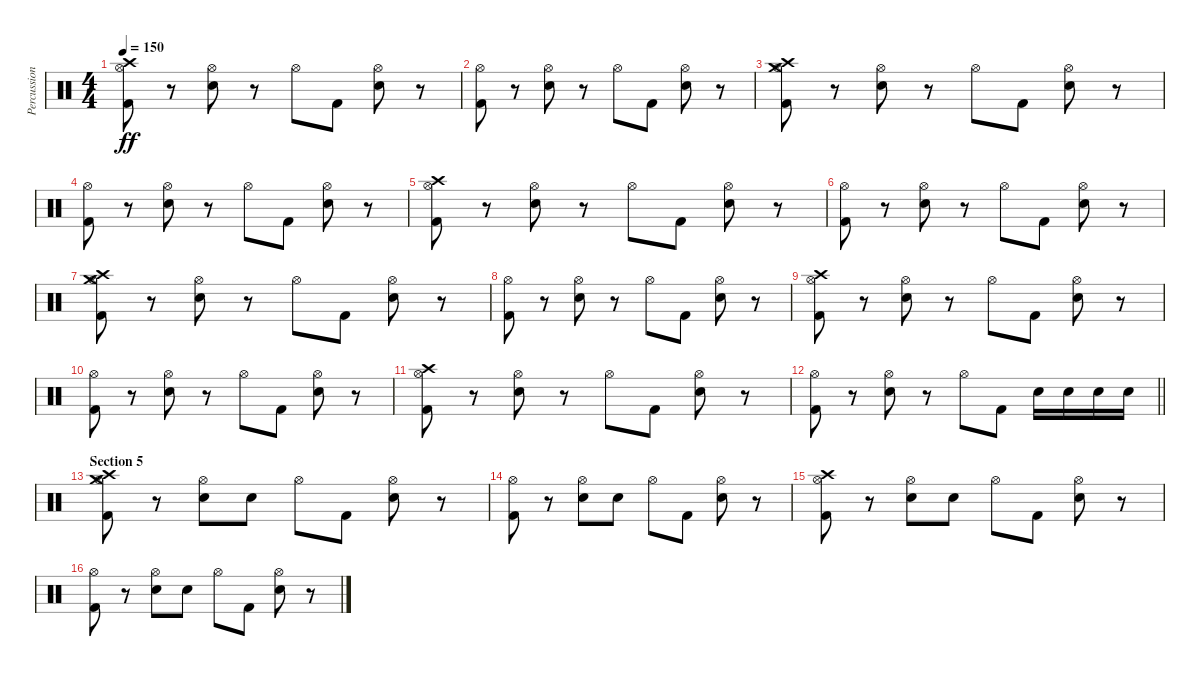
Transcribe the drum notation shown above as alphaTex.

\track ("Percussion" "Percussion") {instrument percussion}
\staff {score}
\articulation defaults
\ts (4 4)
\tempo 150
\clef neutral
\ks c
("Hi-Hat (open)" "Crash high (hit)" "Kick (hit) 2").8{dy ff} r.8 ("Hi-Hat (open)" "Snare (hit) 2").8 r.8 "Hi-Hat (open)".8 "Kick (hit) 2".8 ("Hi-Hat (open)" "Snare (hit) 2").8 r.8 |
("Hi-Hat (open)" "Kick (hit) 2").8 r.8 ("Hi-Hat (open)" "Snare (hit) 2").8 r.8 "Hi-Hat (open)".8 "Kick (hit) 2".8 ("Hi-Hat (open)" "Snare (hit) 2").8 r.8 |
("Hi-Hat (open)" "Crash high (hit)" "Crash medium (hit)" "Kick (hit) 2").8 r.8 ("Hi-Hat (open)" "Snare (hit) 2").8 r.8 "Hi-Hat (open)".8 "Kick (hit) 2".8 ("Hi-Hat (open)" "Snare (hit) 2").8 r.8 |
("Hi-Hat (open)" "Kick (hit) 2").8 r.8 ("Hi-Hat (open)" "Snare (hit) 2").8 r.8 "Hi-Hat (open)".8 "Kick (hit) 2".8 ("Hi-Hat (open)" "Snare (hit) 2").8 r.8 |
("Hi-Hat (open)" "Crash high (hit)" "Kick (hit) 2").8 r.8 ("Hi-Hat (open)" "Snare (hit) 2").8 r.8 "Hi-Hat (open)".8 "Kick (hit) 2".8 ("Hi-Hat (open)" "Snare (hit) 2").8 r.8 |
("Hi-Hat (open)" "Kick (hit) 2").8 r.8 ("Hi-Hat (open)" "Snare (hit) 2").8 r.8 "Hi-Hat (open)".8 "Kick (hit) 2".8 ("Hi-Hat (open)" "Snare (hit) 2").8 r.8 |
("Hi-Hat (open)" "Crash high (hit)" "Crash medium (hit)" "Kick (hit) 2").8 r.8 ("Hi-Hat (open)" "Snare (hit) 2").8 r.8 "Hi-Hat (open)".8 "Kick (hit) 2".8 ("Hi-Hat (open)" "Snare (hit) 2").8 r.8 |
("Hi-Hat (open)" "Kick (hit) 2").8 r.8 ("Hi-Hat (open)" "Snare (hit) 2").8 r.8 "Hi-Hat (open)".8 "Kick (hit) 2".8 ("Hi-Hat (open)" "Snare (hit) 2").8 r.8 |
("Hi-Hat (open)" "Crash high (hit)" "Kick (hit) 2").8 r.8 ("Hi-Hat (open)" "Snare (hit) 2").8 r.8 "Hi-Hat (open)".8 "Kick (hit) 2".8 ("Hi-Hat (open)" "Snare (hit) 2").8 r.8 |
("Hi-Hat (open)" "Kick (hit) 2").8 r.8 ("Hi-Hat (open)" "Snare (hit) 2").8 r.8 "Hi-Hat (open)".8 "Kick (hit) 2".8 ("Hi-Hat (open)" "Snare (hit) 2").8 r.8 |
("Hi-Hat (open)" "Crash high (hit)" "Kick (hit) 2").8 r.8 ("Hi-Hat (open)" "Snare (hit) 2").8 r.8 "Hi-Hat (open)".8 "Kick (hit) 2".8 ("Hi-Hat (open)" "Snare (hit) 2").8 r.8 |
\barLineRight lightlight
("Hi-Hat (open)" "Kick (hit) 2").8 r.8 ("Hi-Hat (open)" "Snare (hit) 2").8 r.8 "Hi-Hat (open)".8 "Kick (hit) 2".8 "Snare (hit) 2".16 "Snare (hit) 2".16 "Snare (hit) 2".16 "Snare (hit) 2".16 |
\section ("" "Section 5")
("Hi-Hat (open)" "Crash high (hit)" "Crash medium (hit)" "Kick (hit) 2").8 r.8 ("Hi-Hat (open)" "Snare (hit) 2").8 "Snare (hit) 2".8 "Hi-Hat (open)".8 "Kick (hit) 2".8 ("Hi-Hat (open)" "Snare (hit) 2").8 r.8 |
("Hi-Hat (open)" "Kick (hit) 2").8 r.8 ("Hi-Hat (open)" "Snare (hit) 2").8 "Snare (hit) 2".8 "Hi-Hat (open)".8 "Kick (hit) 2".8 ("Hi-Hat (open)" "Snare (hit) 2").8 r.8 |
("Hi-Hat (open)" "Crash high (hit)" "Kick (hit) 2").8 r.8 ("Hi-Hat (open)" "Snare (hit) 2").8 "Snare (hit) 2".8 "Hi-Hat (open)".8 "Kick (hit) 2".8 ("Hi-Hat (open)" "Snare (hit) 2").8 r.8 |
("Hi-Hat (open)" "Kick (hit) 2").8 r.8 ("Hi-Hat (open)" "Snare (hit) 2").8 "Snare (hit) 2".8 "Hi-Hat (open)".8 "Kick (hit) 2".8 ("Hi-Hat (open)" "Snare (hit) 2").8 r.8
